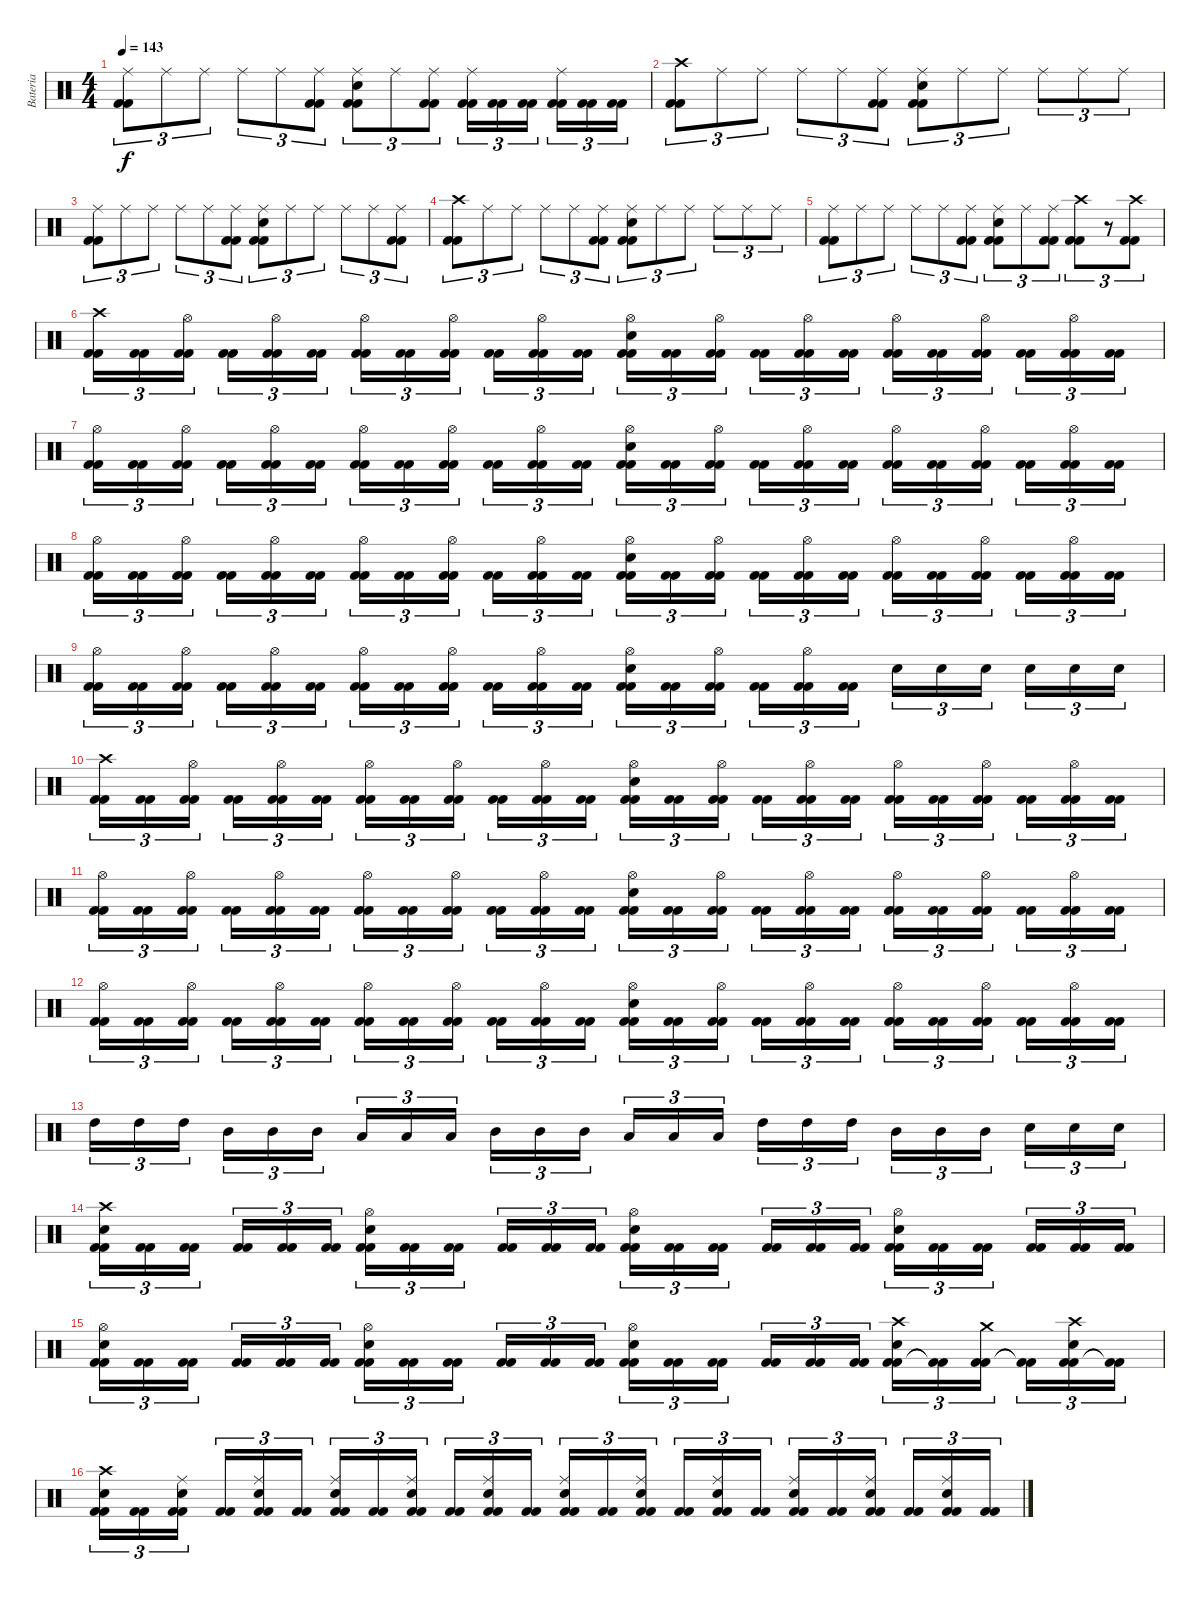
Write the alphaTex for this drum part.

\track ("Bateria" "Bateria") {instrument percussion}
\staff {score}
\articulation defaults
\ts (4 4)
\tempo 143
\clef neutral
\ks c
("Kick (hit) 2" "Kick (hit) 2" "Ride (middle)").8{tu (3 2) dy f} "Ride (middle)".8{tu (3 2)} "Ride (middle)".8{tu (3 2)} "Ride (middle)".8{tu (3 2)} "Ride (middle)".8{tu (3 2)} ("Kick (hit) 2" "Kick (hit) 2" "Ride (middle)").8{tu (3 2)} ("Kick (hit) 2" "Kick (hit) 2" "Snare (hit) 2" "Ride (middle)").8{tu (3 2)} "Ride (middle)".8{tu (3 2)} ("Kick (hit) 2" "Kick (hit) 2" "Ride (middle)").8{tu (3 2)} ("Kick (hit) 2" "Kick (hit) 2" "Ride (middle)").16{tu (3 2)} ("Kick (hit) 2" "Kick (hit) 2").16{tu (3 2)} ("Kick (hit) 2" "Kick (hit) 2").16{tu (3 2)} ("Kick (hit) 2" "Kick (hit) 2" "Ride (middle)").16{tu (3 2)} ("Kick (hit) 2" "Kick (hit) 2").16{tu (3 2)} ("Kick (hit) 2" "Kick (hit) 2").16{tu (3 2)} |
("Kick (hit) 2" "Kick (hit) 2" "Crash high (hit)").8{tu (3 2)} "Ride (middle)".8{tu (3 2)} "Ride (middle)".8{tu (3 2)} "Ride (middle)".8{tu (3 2)} "Ride (middle)".8{tu (3 2)} ("Kick (hit) 2" "Kick (hit) 2" "Ride (middle)").8{tu (3 2)} ("Kick (hit) 2" "Kick (hit) 2" "Snare (hit) 2" "Ride (middle)").8{tu (3 2)} "Ride (middle)".8{tu (3 2)} "Ride (middle)".8{tu (3 2)} "Ride (middle)".8{tu (3 2)} "Ride (middle)".8{tu (3 2)} "Ride (middle)".8{tu (3 2)} |
("Kick (hit) 2" "Kick (hit) 2" "Ride (middle)").8{tu (3 2)} "Ride (middle)".8{tu (3 2)} "Ride (middle)".8{tu (3 2)} "Ride (middle)".8{tu (3 2)} "Ride (middle)".8{tu (3 2)} ("Kick (hit) 2" "Kick (hit) 2" "Ride (middle)").8{tu (3 2)} ("Kick (hit) 2" "Kick (hit) 2" "Snare (hit) 2" "Ride (middle)").8{tu (3 2)} "Ride (middle)".8{tu (3 2)} "Ride (middle)".8{tu (3 2)} "Ride (middle)".8{tu (3 2)} "Ride (middle)".8{tu (3 2)} ("Kick (hit) 2" "Kick (hit) 2" "Ride (middle)").8{tu (3 2)} |
("Kick (hit) 2" "Kick (hit) 2" "Crash high (hit)").8{tu (3 2)} "Ride (middle)".8{tu (3 2)} "Ride (middle)".8{tu (3 2)} "Ride (middle)".8{tu (3 2)} "Ride (middle)".8{tu (3 2)} ("Kick (hit) 2" "Kick (hit) 2" "Ride (middle)").8{tu (3 2)} ("Kick (hit) 2" "Kick (hit) 2" "Snare (hit) 2" "Ride (middle)").8{tu (3 2)} "Ride (middle)".8{tu (3 2)} "Ride (middle)".8{tu (3 2)} "Ride (middle)".8{tu (3 2)} "Ride (middle)".8{tu (3 2)} "Ride (middle)".8{tu (3 2)} |
("Kick (hit) 2" "Kick (hit) 2" "Ride (middle)").8{tu (3 2)} "Ride (middle)".8{tu (3 2)} "Ride (middle)".8{tu (3 2)} "Ride (middle)".8{tu (3 2)} "Ride (middle)".8{tu (3 2)} ("Kick (hit) 2" "Kick (hit) 2" "Ride (middle)").8{tu (3 2)} ("Kick (hit) 2" "Kick (hit) 2" "Snare (hit) 2" "Ride (middle)").8{tu (3 2)} "Ride (middle)".8{tu (3 2)} ("Kick (hit) 2" "Kick (hit) 2" "Ride (middle)").8{tu (3 2)} ("Kick (hit) 2" "Kick (hit) 2" "Crash high (hit)").8{tu (3 2)} r.8{tu (3 2)} ("Kick (hit) 2" "Kick (hit) 2" "Crash high (hit)").8{tu (3 2)} |
("Kick (hit) 2" "Kick (hit) 2" "Crash high (hit)").16{tu (3 2)} ("Kick (hit) 2" "Kick (hit) 2").16{tu (3 2)} ("Kick (hit) 2" "Kick (hit) 2" "Hi-Hat (open)").16{tu (3 2)} ("Kick (hit) 2" "Kick (hit) 2").16{tu (3 2)} ("Kick (hit) 2" "Kick (hit) 2" "Hi-Hat (open)").16{tu (3 2)} ("Kick (hit) 2" "Kick (hit) 2").16{tu (3 2)} ("Kick (hit) 2" "Kick (hit) 2" "Hi-Hat (open)").16{tu (3 2)} ("Kick (hit) 2" "Kick (hit) 2").16{tu (3 2)} ("Kick (hit) 2" "Kick (hit) 2" "Hi-Hat (open)").16{tu (3 2)} ("Kick (hit) 2" "Kick (hit) 2").16{tu (3 2)} ("Kick (hit) 2" "Kick (hit) 2" "Hi-Hat (open)").16{tu (3 2)} ("Kick (hit) 2" "Kick (hit) 2").16{tu (3 2)} ("Kick (hit) 2" "Kick (hit) 2" "Snare (hit) 2" "Hi-Hat (open)").16{tu (3 2)} ("Kick (hit) 2" "Kick (hit) 2").16{tu (3 2)} ("Kick (hit) 2" "Kick (hit) 2" "Hi-Hat (open)").16{tu (3 2)} ("Kick (hit) 2" "Kick (hit) 2").16{tu (3 2)} ("Kick (hit) 2" "Kick (hit) 2" "Hi-Hat (open)").16{tu (3 2)} ("Kick (hit) 2" "Kick (hit) 2").16{tu (3 2)} ("Kick (hit) 2" "Kick (hit) 2" "Hi-Hat (open)").16{tu (3 2)} ("Kick (hit) 2" "Kick (hit) 2").16{tu (3 2)} ("Kick (hit) 2" "Kick (hit) 2" "Hi-Hat (open)").16{tu (3 2)} ("Kick (hit) 2" "Kick (hit) 2").16{tu (3 2)} ("Kick (hit) 2" "Kick (hit) 2" "Hi-Hat (open)").16{tu (3 2)} ("Kick (hit) 2" "Kick (hit) 2").16{tu (3 2)} |
("Kick (hit) 2" "Kick (hit) 2" "Hi-Hat (open)").16{tu (3 2)} ("Kick (hit) 2" "Kick (hit) 2").16{tu (3 2)} ("Kick (hit) 2" "Kick (hit) 2" "Hi-Hat (open)").16{tu (3 2)} ("Kick (hit) 2" "Kick (hit) 2").16{tu (3 2)} ("Kick (hit) 2" "Kick (hit) 2" "Hi-Hat (open)").16{tu (3 2)} ("Kick (hit) 2" "Kick (hit) 2").16{tu (3 2)} ("Kick (hit) 2" "Kick (hit) 2" "Hi-Hat (open)").16{tu (3 2)} ("Kick (hit) 2" "Kick (hit) 2").16{tu (3 2)} ("Kick (hit) 2" "Kick (hit) 2" "Hi-Hat (open)").16{tu (3 2)} ("Kick (hit) 2" "Kick (hit) 2").16{tu (3 2)} ("Kick (hit) 2" "Kick (hit) 2" "Hi-Hat (open)").16{tu (3 2)} ("Kick (hit) 2" "Kick (hit) 2").16{tu (3 2)} ("Kick (hit) 2" "Kick (hit) 2" "Snare (hit) 2" "Hi-Hat (open)").16{tu (3 2)} ("Kick (hit) 2" "Kick (hit) 2").16{tu (3 2)} ("Kick (hit) 2" "Kick (hit) 2" "Hi-Hat (open)").16{tu (3 2)} ("Kick (hit) 2" "Kick (hit) 2").16{tu (3 2)} ("Kick (hit) 2" "Kick (hit) 2" "Hi-Hat (open)").16{tu (3 2)} ("Kick (hit) 2" "Kick (hit) 2").16{tu (3 2)} ("Kick (hit) 2" "Kick (hit) 2" "Hi-Hat (open)").16{tu (3 2)} ("Kick (hit) 2" "Kick (hit) 2").16{tu (3 2)} ("Kick (hit) 2" "Kick (hit) 2" "Hi-Hat (open)").16{tu (3 2)} ("Kick (hit) 2" "Kick (hit) 2").16{tu (3 2)} ("Kick (hit) 2" "Kick (hit) 2" "Hi-Hat (open)").16{tu (3 2)} ("Kick (hit) 2" "Kick (hit) 2").16{tu (3 2)} |
("Kick (hit) 2" "Kick (hit) 2" "Hi-Hat (open)").16{tu (3 2)} ("Kick (hit) 2" "Kick (hit) 2").16{tu (3 2)} ("Kick (hit) 2" "Kick (hit) 2" "Hi-Hat (open)").16{tu (3 2)} ("Kick (hit) 2" "Kick (hit) 2").16{tu (3 2)} ("Kick (hit) 2" "Kick (hit) 2" "Hi-Hat (open)").16{tu (3 2)} ("Kick (hit) 2" "Kick (hit) 2").16{tu (3 2)} ("Kick (hit) 2" "Kick (hit) 2" "Hi-Hat (open)").16{tu (3 2)} ("Kick (hit) 2" "Kick (hit) 2").16{tu (3 2)} ("Kick (hit) 2" "Kick (hit) 2" "Hi-Hat (open)").16{tu (3 2)} ("Kick (hit) 2" "Kick (hit) 2").16{tu (3 2)} ("Kick (hit) 2" "Kick (hit) 2" "Hi-Hat (open)").16{tu (3 2)} ("Kick (hit) 2" "Kick (hit) 2").16{tu (3 2)} ("Kick (hit) 2" "Kick (hit) 2" "Snare (hit) 2" "Hi-Hat (open)").16{tu (3 2)} ("Kick (hit) 2" "Kick (hit) 2").16{tu (3 2)} ("Kick (hit) 2" "Kick (hit) 2" "Hi-Hat (open)").16{tu (3 2)} ("Kick (hit) 2" "Kick (hit) 2").16{tu (3 2)} ("Kick (hit) 2" "Kick (hit) 2" "Hi-Hat (open)").16{tu (3 2)} ("Kick (hit) 2" "Kick (hit) 2").16{tu (3 2)} ("Kick (hit) 2" "Kick (hit) 2" "Hi-Hat (open)").16{tu (3 2)} ("Kick (hit) 2" "Kick (hit) 2").16{tu (3 2)} ("Kick (hit) 2" "Kick (hit) 2" "Hi-Hat (open)").16{tu (3 2)} ("Kick (hit) 2" "Kick (hit) 2").16{tu (3 2)} ("Kick (hit) 2" "Kick (hit) 2" "Hi-Hat (open)").16{tu (3 2)} ("Kick (hit) 2" "Kick (hit) 2").16{tu (3 2)} |
("Kick (hit) 2" "Kick (hit) 2" "Hi-Hat (open)").16{tu (3 2)} ("Kick (hit) 2" "Kick (hit) 2").16{tu (3 2)} ("Kick (hit) 2" "Kick (hit) 2" "Hi-Hat (open)").16{tu (3 2)} ("Kick (hit) 2" "Kick (hit) 2").16{tu (3 2)} ("Kick (hit) 2" "Kick (hit) 2" "Hi-Hat (open)").16{tu (3 2)} ("Kick (hit) 2" "Kick (hit) 2").16{tu (3 2)} ("Kick (hit) 2" "Kick (hit) 2" "Hi-Hat (open)").16{tu (3 2)} ("Kick (hit) 2" "Kick (hit) 2").16{tu (3 2)} ("Kick (hit) 2" "Kick (hit) 2" "Hi-Hat (open)").16{tu (3 2)} ("Kick (hit) 2" "Kick (hit) 2").16{tu (3 2)} ("Kick (hit) 2" "Kick (hit) 2" "Hi-Hat (open)").16{tu (3 2)} ("Kick (hit) 2" "Kick (hit) 2").16{tu (3 2)} ("Kick (hit) 2" "Kick (hit) 2" "Snare (hit) 2" "Hi-Hat (open)").16{tu (3 2)} ("Kick (hit) 2" "Kick (hit) 2").16{tu (3 2)} ("Kick (hit) 2" "Kick (hit) 2" "Hi-Hat (open)").16{tu (3 2)} ("Kick (hit) 2" "Kick (hit) 2").16{tu (3 2)} ("Kick (hit) 2" "Kick (hit) 2" "Hi-Hat (open)").16{tu (3 2)} ("Kick (hit) 2" "Kick (hit) 2").16{tu (3 2)} "Snare (hit) 2".16{tu (3 2)} "Snare (hit) 2".16{tu (3 2)} "Snare (hit) 2".16{tu (3 2)} "Snare (hit) 2".16{tu (3 2)} "Snare (hit) 2".16{tu (3 2)} "Snare (hit) 2".16{tu (3 2)} |
("Kick (hit) 2" "Kick (hit) 2" "Crash high (hit)").16{tu (3 2)} ("Kick (hit) 2" "Kick (hit) 2").16{tu (3 2)} ("Kick (hit) 2" "Kick (hit) 2" "Hi-Hat (open)").16{tu (3 2)} ("Kick (hit) 2" "Kick (hit) 2").16{tu (3 2)} ("Kick (hit) 2" "Kick (hit) 2" "Hi-Hat (open)").16{tu (3 2)} ("Kick (hit) 2" "Kick (hit) 2").16{tu (3 2)} ("Kick (hit) 2" "Kick (hit) 2" "Hi-Hat (open)").16{tu (3 2)} ("Kick (hit) 2" "Kick (hit) 2").16{tu (3 2)} ("Kick (hit) 2" "Kick (hit) 2" "Hi-Hat (open)").16{tu (3 2)} ("Kick (hit) 2" "Kick (hit) 2").16{tu (3 2)} ("Kick (hit) 2" "Kick (hit) 2" "Hi-Hat (open)").16{tu (3 2)} ("Kick (hit) 2" "Kick (hit) 2").16{tu (3 2)} ("Kick (hit) 2" "Kick (hit) 2" "Snare (hit) 2" "Hi-Hat (open)").16{tu (3 2)} ("Kick (hit) 2" "Kick (hit) 2").16{tu (3 2)} ("Kick (hit) 2" "Kick (hit) 2" "Hi-Hat (open)").16{tu (3 2)} ("Kick (hit) 2" "Kick (hit) 2").16{tu (3 2)} ("Kick (hit) 2" "Kick (hit) 2" "Hi-Hat (open)").16{tu (3 2)} ("Kick (hit) 2" "Kick (hit) 2").16{tu (3 2)} ("Kick (hit) 2" "Kick (hit) 2" "Hi-Hat (open)").16{tu (3 2)} ("Kick (hit) 2" "Kick (hit) 2").16{tu (3 2)} ("Kick (hit) 2" "Kick (hit) 2" "Hi-Hat (open)").16{tu (3 2)} ("Kick (hit) 2" "Kick (hit) 2").16{tu (3 2)} ("Kick (hit) 2" "Kick (hit) 2" "Hi-Hat (open)").16{tu (3 2)} ("Kick (hit) 2" "Kick (hit) 2").16{tu (3 2)} |
("Kick (hit) 2" "Kick (hit) 2" "Hi-Hat (open)").16{tu (3 2)} ("Kick (hit) 2" "Kick (hit) 2").16{tu (3 2)} ("Kick (hit) 2" "Kick (hit) 2" "Hi-Hat (open)").16{tu (3 2)} ("Kick (hit) 2" "Kick (hit) 2").16{tu (3 2)} ("Kick (hit) 2" "Kick (hit) 2" "Hi-Hat (open)").16{tu (3 2)} ("Kick (hit) 2" "Kick (hit) 2").16{tu (3 2)} ("Kick (hit) 2" "Kick (hit) 2" "Hi-Hat (open)").16{tu (3 2)} ("Kick (hit) 2" "Kick (hit) 2").16{tu (3 2)} ("Kick (hit) 2" "Kick (hit) 2" "Hi-Hat (open)").16{tu (3 2)} ("Kick (hit) 2" "Kick (hit) 2").16{tu (3 2)} ("Kick (hit) 2" "Kick (hit) 2" "Hi-Hat (open)").16{tu (3 2)} ("Kick (hit) 2" "Kick (hit) 2").16{tu (3 2)} ("Kick (hit) 2" "Kick (hit) 2" "Snare (hit) 2" "Hi-Hat (open)").16{tu (3 2)} ("Kick (hit) 2" "Kick (hit) 2").16{tu (3 2)} ("Kick (hit) 2" "Kick (hit) 2" "Hi-Hat (open)").16{tu (3 2)} ("Kick (hit) 2" "Kick (hit) 2").16{tu (3 2)} ("Kick (hit) 2" "Kick (hit) 2" "Hi-Hat (open)").16{tu (3 2)} ("Kick (hit) 2" "Kick (hit) 2").16{tu (3 2)} ("Kick (hit) 2" "Kick (hit) 2" "Hi-Hat (open)").16{tu (3 2)} ("Kick (hit) 2" "Kick (hit) 2").16{tu (3 2)} ("Kick (hit) 2" "Kick (hit) 2" "Hi-Hat (open)").16{tu (3 2)} ("Kick (hit) 2" "Kick (hit) 2").16{tu (3 2)} ("Kick (hit) 2" "Kick (hit) 2" "Hi-Hat (open)").16{tu (3 2)} ("Kick (hit) 2" "Kick (hit) 2").16{tu (3 2)} |
("Kick (hit) 2" "Kick (hit) 2" "Hi-Hat (open)").16{tu (3 2)} ("Kick (hit) 2" "Kick (hit) 2").16{tu (3 2)} ("Kick (hit) 2" "Kick (hit) 2" "Hi-Hat (open)").16{tu (3 2)} ("Kick (hit) 2" "Kick (hit) 2").16{tu (3 2)} ("Kick (hit) 2" "Kick (hit) 2" "Hi-Hat (open)").16{tu (3 2)} ("Kick (hit) 2" "Kick (hit) 2").16{tu (3 2)} ("Kick (hit) 2" "Kick (hit) 2" "Hi-Hat (open)").16{tu (3 2)} ("Kick (hit) 2" "Kick (hit) 2").16{tu (3 2)} ("Kick (hit) 2" "Kick (hit) 2" "Hi-Hat (open)").16{tu (3 2)} ("Kick (hit) 2" "Kick (hit) 2").16{tu (3 2)} ("Kick (hit) 2" "Kick (hit) 2" "Hi-Hat (open)").16{tu (3 2)} ("Kick (hit) 2" "Kick (hit) 2").16{tu (3 2)} ("Kick (hit) 2" "Kick (hit) 2" "Snare (hit) 2" "Hi-Hat (open)").16{tu (3 2)} ("Kick (hit) 2" "Kick (hit) 2").16{tu (3 2)} ("Kick (hit) 2" "Kick (hit) 2" "Hi-Hat (open)").16{tu (3 2)} ("Kick (hit) 2" "Kick (hit) 2").16{tu (3 2)} ("Kick (hit) 2" "Kick (hit) 2" "Hi-Hat (open)").16{tu (3 2)} ("Kick (hit) 2" "Kick (hit) 2").16{tu (3 2)} ("Kick (hit) 2" "Kick (hit) 2" "Hi-Hat (open)").16{tu (3 2)} ("Kick (hit) 2" "Kick (hit) 2").16{tu (3 2)} ("Kick (hit) 2" "Kick (hit) 2" "Hi-Hat (open)").16{tu (3 2)} ("Kick (hit) 2" "Kick (hit) 2").16{tu (3 2)} ("Kick (hit) 2" "Kick (hit) 2" "Hi-Hat (open)").16{tu (3 2)} ("Kick (hit) 2" "Kick (hit) 2").16{tu (3 2)} |
"High Tom (hit)".16{tu (3 2)} "High Tom (hit)".16{tu (3 2)} "High Tom (hit)".16{tu (3 2)} "Mid Tom (hit)".16{tu (3 2)} "Mid Tom (hit)".16{tu (3 2)} "Mid Tom (hit)".16{tu (3 2)} "Low Tom (hit)".16{tu (3 2)} "Low Tom (hit)".16{tu (3 2)} "Low Tom (hit)".16{tu (3 2)} "Mid Tom (hit)".16{tu (3 2)} "Mid Tom (hit)".16{tu (3 2)} "Mid Tom (hit)".16{tu (3 2)} "Low Tom (hit)".16{tu (3 2)} "Low Tom (hit)".16{tu (3 2)} "Low Tom (hit)".16{tu (3 2)} "High Tom (hit)".16{tu (3 2)} "High Tom (hit)".16{tu (3 2)} "High Tom (hit)".16{tu (3 2)} "Mid Tom (hit)".16{tu (3 2)} "Mid Tom (hit)".16{tu (3 2)} "Mid Tom (hit)".16{tu (3 2)} "Snare (hit) 2".16{tu (3 2)} "Snare (hit) 2".16{tu (3 2)} "Snare (hit) 2".16{tu (3 2)} |
("Kick (hit) 2" "Kick (hit) 2" "Snare (hit) 2" "Crash high (hit)").16{tu (3 2)} ("Kick (hit) 2" "Kick (hit) 2").16{tu (3 2)} ("Kick (hit) 2" "Kick (hit) 2").16{tu (3 2)} ("Kick (hit) 2" "Kick (hit) 2").16{tu (3 2)} ("Kick (hit) 2" "Kick (hit) 2").16{tu (3 2)} ("Kick (hit) 2" "Kick (hit) 2").16{tu (3 2)} ("Kick (hit) 2" "Kick (hit) 2" "Snare (hit) 2" "Hi-Hat (open)").16{tu (3 2)} ("Kick (hit) 2" "Kick (hit) 2").16{tu (3 2)} ("Kick (hit) 2" "Kick (hit) 2").16{tu (3 2)} ("Kick (hit) 2" "Kick (hit) 2").16{tu (3 2)} ("Kick (hit) 2" "Kick (hit) 2").16{tu (3 2)} ("Kick (hit) 2" "Kick (hit) 2").16{tu (3 2)} ("Kick (hit) 2" "Kick (hit) 2" "Snare (hit) 2" "Hi-Hat (open)").16{tu (3 2)} ("Kick (hit) 2" "Kick (hit) 2").16{tu (3 2)} ("Kick (hit) 2" "Kick (hit) 2").16{tu (3 2)} ("Kick (hit) 2" "Kick (hit) 2").16{tu (3 2)} ("Kick (hit) 2" "Kick (hit) 2").16{tu (3 2)} ("Kick (hit) 2" "Kick (hit) 2").16{tu (3 2)} ("Kick (hit) 2" "Kick (hit) 2" "Snare (hit) 2" "Hi-Hat (open)").16{tu (3 2)} ("Kick (hit) 2" "Kick (hit) 2").16{tu (3 2)} ("Kick (hit) 2" "Kick (hit) 2").16{tu (3 2)} ("Kick (hit) 2" "Kick (hit) 2").16{tu (3 2)} ("Kick (hit) 2" "Kick (hit) 2").16{tu (3 2)} ("Kick (hit) 2" "Kick (hit) 2").16{tu (3 2)} |
("Kick (hit) 2" "Kick (hit) 2" "Snare (hit) 2" "Hi-Hat (open)").16{tu (3 2)} ("Kick (hit) 2" "Kick (hit) 2").16{tu (3 2)} ("Kick (hit) 2" "Kick (hit) 2").16{tu (3 2)} ("Kick (hit) 2" "Kick (hit) 2").16{tu (3 2)} ("Kick (hit) 2" "Kick (hit) 2").16{tu (3 2)} ("Kick (hit) 2" "Kick (hit) 2").16{tu (3 2)} ("Kick (hit) 2" "Kick (hit) 2" "Snare (hit) 2" "Hi-Hat (open)").16{tu (3 2)} ("Kick (hit) 2" "Kick (hit) 2").16{tu (3 2)} ("Kick (hit) 2" "Kick (hit) 2").16{tu (3 2)} ("Kick (hit) 2" "Kick (hit) 2").16{tu (3 2)} ("Kick (hit) 2" "Kick (hit) 2").16{tu (3 2)} ("Kick (hit) 2" "Kick (hit) 2").16{tu (3 2)} ("Kick (hit) 2" "Kick (hit) 2" "Snare (hit) 2" "Hi-Hat (open)").16{tu (3 2)} ("Kick (hit) 2" "Kick (hit) 2").16{tu (3 2)} ("Kick (hit) 2" "Kick (hit) 2").16{tu (3 2)} ("Kick (hit) 2" "Kick (hit) 2").16{tu (3 2)} ("Kick (hit) 2" "Kick (hit) 2").16{tu (3 2)} ("Kick (hit) 2" "Kick (hit) 2").16{tu (3 2)} ("Kick (hit) 2" "Kick (hit) 2" "Snare (hit) 2" "Crash high (hit)").16{tu (3 2)} ("Kick (hit) 2"{t} "Kick (hit) 2"{t}).16{tu (3 2)} ("Kick (hit) 2" "Kick (hit) 2" "Crash medium (hit)").16{tu (3 2)} ("Kick (hit) 2"{t} "Kick (hit) 2"{t}).16{tu (3 2)} ("Kick (hit) 2" "Kick (hit) 2" "Snare (hit) 2" "Crash high (hit)").16{tu (3 2)} ("Kick (hit) 2"{t} "Kick (hit) 2"{t}).16{tu (3 2)} |
("Kick (hit) 2" "Kick (hit) 2" "Snare (hit) 2" "Crash high (hit)").16{tu (3 2)} ("Kick (hit) 2" "Kick (hit) 2").16{tu (3 2)} ("Kick (hit) 2" "Kick (hit) 2" "Snare (hit) 2" "Ride (middle)").16{tu (3 2)} ("Kick (hit) 2" "Kick (hit) 2").16{tu (3 2)} ("Kick (hit) 2" "Kick (hit) 2" "Snare (hit) 2" "Ride (middle)").16{tu (3 2)} ("Kick (hit) 2" "Kick (hit) 2").16{tu (3 2)} ("Kick (hit) 2" "Kick (hit) 2" "Snare (hit) 2" "Ride (middle)").16{tu (3 2)} ("Kick (hit) 2" "Kick (hit) 2").16{tu (3 2)} ("Kick (hit) 2" "Kick (hit) 2" "Snare (hit) 2" "Ride (middle)").16{tu (3 2)} ("Kick (hit) 2" "Kick (hit) 2").16{tu (3 2)} ("Kick (hit) 2" "Kick (hit) 2" "Snare (hit) 2" "Ride (middle)").16{tu (3 2)} ("Kick (hit) 2" "Kick (hit) 2").16{tu (3 2)} ("Kick (hit) 2" "Kick (hit) 2" "Snare (hit) 2" "Ride (middle)").16{tu (3 2)} ("Kick (hit) 2" "Kick (hit) 2").16{tu (3 2)} ("Kick (hit) 2" "Kick (hit) 2" "Snare (hit) 2" "Ride (middle)").16{tu (3 2)} ("Kick (hit) 2" "Kick (hit) 2").16{tu (3 2)} ("Kick (hit) 2" "Kick (hit) 2" "Snare (hit) 2" "Ride (middle)").16{tu (3 2)} ("Kick (hit) 2" "Kick (hit) 2").16{tu (3 2)} ("Kick (hit) 2" "Kick (hit) 2" "Snare (hit) 2" "Ride (middle)").16{tu (3 2)} ("Kick (hit) 2" "Kick (hit) 2").16{tu (3 2)} ("Kick (hit) 2" "Kick (hit) 2" "Snare (hit) 2" "Ride (middle)").16{tu (3 2)} ("Kick (hit) 2" "Kick (hit) 2").16{tu (3 2)} ("Kick (hit) 2" "Kick (hit) 2" "Snare (hit) 2" "Ride (middle)").16{tu (3 2)} ("Kick (hit) 2" "Kick (hit) 2").16{tu (3 2)}
